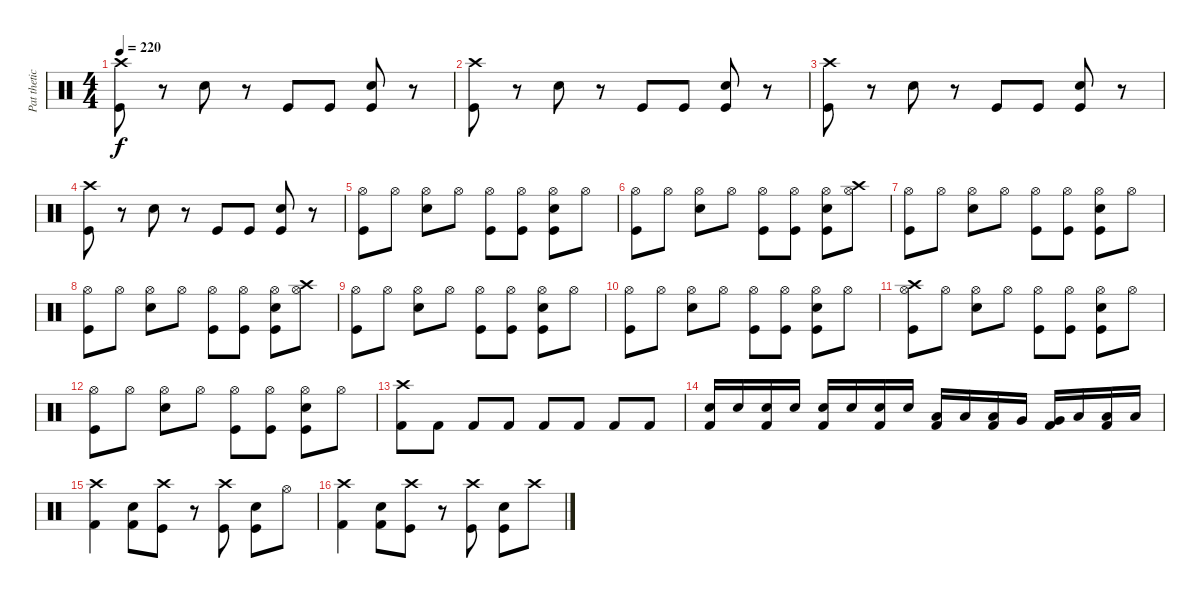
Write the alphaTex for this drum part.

\track ("Pat thetic (Drums)" "Pat thetic") {instrument percussion}
\staff {score}
\articulation defaults
\ts (4 4)
\tempo 220
\clef neutral
\ks c
("Kick (hit)" "Crash high (hit)").8{dy f} r.8 "Electric Snare (hit)".8 r.8 "Kick (hit)".8 "Kick (hit)".8 ("Kick (hit)" "Electric Snare (hit)").8 r.8 |
("Kick (hit)" "Crash high (hit)").8 r.8 "Electric Snare (hit)".8 r.8 "Kick (hit)".8 "Kick (hit)".8 ("Kick (hit)" "Electric Snare (hit)").8 r.8 |
("Kick (hit)" "Crash high (hit)").8 r.8 "Electric Snare (hit)".8 r.8 "Kick (hit)".8 "Kick (hit)".8 ("Kick (hit)" "Electric Snare (hit)").8 r.8 |
("Kick (hit)" "Crash high (hit)").8 r.8 "Electric Snare (hit)".8 r.8 "Kick (hit)".8 "Kick (hit)".8 ("Kick (hit)" "Electric Snare (hit)").8 r.8 |
("Kick (hit)" "Hi-Hat (open)").8 "Hi-Hat (open)".8 ("Electric Snare (hit)" "Hi-Hat (open)").8 "Hi-Hat (open)".8 ("Kick (hit)" "Hi-Hat (open)").8 ("Kick (hit)" "Hi-Hat (open)").8 ("Kick (hit)" "Electric Snare (hit)" "Hi-Hat (open)").8 "Hi-Hat (open)".8 |
("Kick (hit)" "Hi-Hat (open)").8 "Hi-Hat (open)".8 ("Electric Snare (hit)" "Hi-Hat (open)").8 "Hi-Hat (open)".8 ("Kick (hit)" "Hi-Hat (open)").8 ("Kick (hit)" "Hi-Hat (open)").8 ("Kick (hit)" "Electric Snare (hit)" "Hi-Hat (open)").8 ("Crash high (hit)" "Hi-Hat (open)").8 |
("Kick (hit)" "Hi-Hat (open)").8 "Hi-Hat (open)".8 ("Electric Snare (hit)" "Hi-Hat (open)").8 "Hi-Hat (open)".8 ("Kick (hit)" "Hi-Hat (open)").8 ("Kick (hit)" "Hi-Hat (open)").8 ("Kick (hit)" "Electric Snare (hit)" "Hi-Hat (open)").8 "Hi-Hat (open)".8 |
("Kick (hit)" "Hi-Hat (open)").8 "Hi-Hat (open)".8 ("Electric Snare (hit)" "Hi-Hat (open)").8 "Hi-Hat (open)".8 ("Kick (hit)" "Hi-Hat (open)").8 ("Kick (hit)" "Hi-Hat (open)").8 ("Kick (hit)" "Electric Snare (hit)" "Hi-Hat (open)").8 ("Crash high (hit)" "Hi-Hat (open)").8 |
("Kick (hit)" "Hi-Hat (open)").8 "Hi-Hat (open)".8 ("Electric Snare (hit)" "Hi-Hat (open)").8 "Hi-Hat (open)".8 ("Kick (hit)" "Hi-Hat (open)").8 ("Kick (hit)" "Hi-Hat (open)").8 ("Kick (hit)" "Electric Snare (hit)" "Hi-Hat (open)").8 "Hi-Hat (open)".8 |
("Kick (hit)" "Hi-Hat (open)").8 "Hi-Hat (open)".8 ("Electric Snare (hit)" "Hi-Hat (open)").8 "Hi-Hat (open)".8 ("Kick (hit)" "Hi-Hat (open)").8 ("Kick (hit)" "Hi-Hat (open)").8 ("Kick (hit)" "Electric Snare (hit)" "Hi-Hat (open)").8 "Hi-Hat (open)".8 |
("Kick (hit)" "Crash high (hit)" "Hi-Hat (open)").8 "Hi-Hat (open)".8 ("Electric Snare (hit)" "Hi-Hat (open)").8 "Hi-Hat (open)".8 ("Kick (hit)" "Hi-Hat (open)").8 ("Kick (hit)" "Hi-Hat (open)").8 ("Kick (hit)" "Electric Snare (hit)" "Hi-Hat (open)").8 "Hi-Hat (open)".8 |
("Kick (hit)" "Hi-Hat (open)").8 "Hi-Hat (open)".8 ("Electric Snare (hit)" "Hi-Hat (open)").8 "Hi-Hat (open)".8 ("Kick (hit)" "Hi-Hat (open)").8 ("Kick (hit)" "Hi-Hat (open)").8 ("Kick (hit)" "Electric Snare (hit)" "Hi-Hat (open)").8 "Hi-Hat (open)".8 |
("Kick (hit) 2" "Crash high (hit)").8 "Kick (hit) 2".8 "Kick (hit) 2".8 "Kick (hit) 2".8 "Kick (hit) 2".8 "Kick (hit) 2".8 "Kick (hit) 2".8 "Kick (hit) 2".8 |
("Kick (hit) 2" "Electric Snare (hit)").16 "Electric Snare (hit)".16 ("Kick (hit) 2" "Electric Snare (hit)").16 "Electric Snare (hit)".16 ("Kick (hit) 2" "Electric Snare (hit)").16 "Electric Snare (hit)".16 ("Kick (hit) 2" "Electric Snare (hit)").16 "Electric Snare (hit)".16 ("Kick (hit) 2" "Low Tom (hit)").16 "Low Tom (hit)".16 ("Kick (hit) 2" "Low Tom (hit)").16 "Very Low Tom (hit)".16 ("Kick (hit) 2" "Very Low Tom (hit)").16 "Low Floor Tom (hit)".16 ("Kick (hit) 2" "Low Floor Tom (hit)").16 "Low Floor Tom (hit)".16 |
("Kick (hit) 2" "Crash high (hit)").4 ("Kick (hit) 2" "Electric Snare (hit)").8 ("Kick (hit)" "Crash high (hit)").8 r.8 ("Kick (hit)" "Crash high (hit)").8 ("Kick (hit)" "Electric Snare (hit)").8 "Hi-Hat (open)".8 |
("Kick (hit) 2" "Crash high (hit)").4 ("Kick (hit) 2" "Electric Snare (hit)").8 ("Kick (hit)" "Crash high (hit)").8 r.8 ("Kick (hit)" "Crash high (hit)").8 ("Kick (hit)" "Electric Snare (hit)").8 "Crash high (hit)".8
